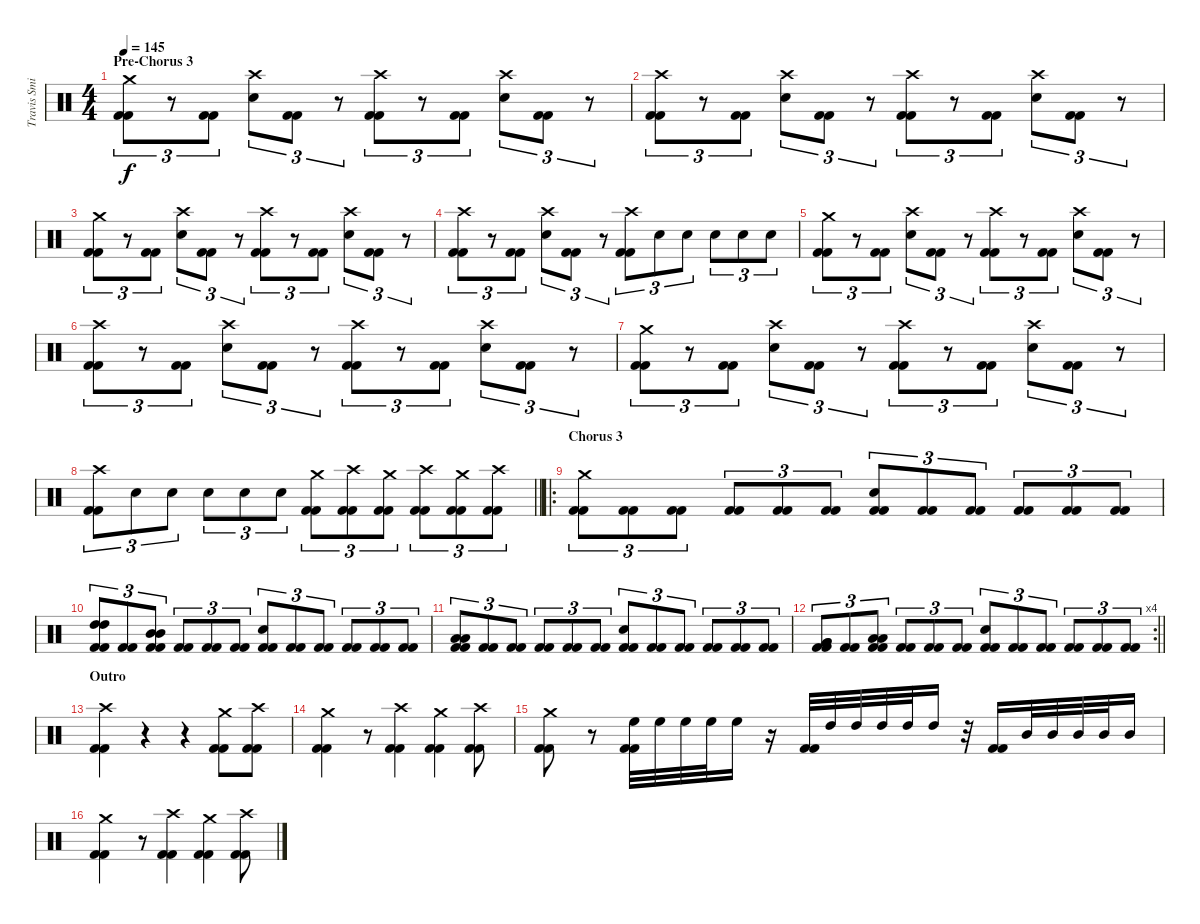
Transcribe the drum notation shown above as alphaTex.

\track ("Travis Smith" "Travis Smi") {instrument percussion}
\staff {score}
\articulation defaults
\ts (4 4)
\section ("" "Pre-Chorus 3")
\tempo 145
\clef neutral
\ks c
("Crash medium (hit)" "Kick (hit) 2" "Kick (hit) 2").8{tu (3 2) dy f} r.8{tu (3 2)} ("Kick (hit) 2" "Kick (hit) 2").8{tu (3 2)} ("Crash high (hit)" "Electric Snare (hit)").8{tu (3 2)} ("Kick (hit) 2" "Kick (hit) 2").8{tu (3 2)} r.8{tu (3 2)} ("Crash high (hit)" "Kick (hit) 2" "Kick (hit) 2").8{tu (3 2)} r.8{tu (3 2)} ("Kick (hit) 2" "Kick (hit) 2").8{tu (3 2)} ("Crash high (hit)" "Electric Snare (hit)").8{tu (3 2)} ("Kick (hit) 2" "Kick (hit) 2").8{tu (3 2)} r.8{tu (3 2)} |
("Crash high (hit)" "Kick (hit) 2" "Kick (hit) 2").8{tu (3 2)} r.8{tu (3 2)} ("Kick (hit) 2" "Kick (hit) 2").8{tu (3 2)} ("Crash high (hit)" "Electric Snare (hit)").8{tu (3 2)} ("Kick (hit) 2" "Kick (hit) 2").8{tu (3 2)} r.8{tu (3 2)} ("Crash high (hit)" "Kick (hit) 2" "Kick (hit) 2").8{tu (3 2)} r.8{tu (3 2)} ("Kick (hit) 2" "Kick (hit) 2").8{tu (3 2)} ("Crash high (hit)" "Electric Snare (hit)").8{tu (3 2)} ("Kick (hit) 2" "Kick (hit) 2").8{tu (3 2)} r.8{tu (3 2)} |
("Crash medium (hit)" "Kick (hit) 2" "Kick (hit) 2").8{tu (3 2)} r.8{tu (3 2)} ("Kick (hit) 2" "Kick (hit) 2").8{tu (3 2)} ("Crash high (hit)" "Electric Snare (hit)").8{tu (3 2)} ("Kick (hit) 2" "Kick (hit) 2").8{tu (3 2)} r.8{tu (3 2)} ("Crash high (hit)" "Kick (hit) 2" "Kick (hit) 2").8{tu (3 2)} r.8{tu (3 2)} ("Kick (hit) 2" "Kick (hit) 2").8{tu (3 2)} ("Crash high (hit)" "Electric Snare (hit)").8{tu (3 2)} ("Kick (hit) 2" "Kick (hit) 2").8{tu (3 2)} r.8{tu (3 2)} |
("Crash high (hit)" "Kick (hit) 2" "Kick (hit) 2").8{tu (3 2)} r.8{tu (3 2)} ("Kick (hit) 2" "Kick (hit) 2").8{tu (3 2)} ("Crash high (hit)" "Electric Snare (hit)").8{tu (3 2)} ("Kick (hit) 2" "Kick (hit) 2").8{tu (3 2)} r.8{tu (3 2)} ("Crash high (hit)" "Kick (hit) 2" "Kick (hit) 2").8{tu (3 2)} "Electric Snare (hit)".8{tu (3 2)} "Electric Snare (hit)".8{tu (3 2)} "Electric Snare (hit)".8{tu (3 2)} "Electric Snare (hit)".8{tu (3 2)} "Electric Snare (hit)".8{tu (3 2)} |
("Crash medium (hit)" "Kick (hit) 2" "Kick (hit) 2").8{tu (3 2)} r.8{tu (3 2)} ("Kick (hit) 2" "Kick (hit) 2").8{tu (3 2)} ("Crash high (hit)" "Electric Snare (hit)").8{tu (3 2)} ("Kick (hit) 2" "Kick (hit) 2").8{tu (3 2)} r.8{tu (3 2)} ("Crash high (hit)" "Kick (hit) 2" "Kick (hit) 2").8{tu (3 2)} r.8{tu (3 2)} ("Kick (hit) 2" "Kick (hit) 2").8{tu (3 2)} ("Crash high (hit)" "Electric Snare (hit)").8{tu (3 2)} ("Kick (hit) 2" "Kick (hit) 2").8{tu (3 2)} r.8{tu (3 2)} |
("Crash high (hit)" "Kick (hit) 2" "Kick (hit) 2").8{tu (3 2)} r.8{tu (3 2)} ("Kick (hit) 2" "Kick (hit) 2").8{tu (3 2)} ("Crash high (hit)" "Electric Snare (hit)").8{tu (3 2)} ("Kick (hit) 2" "Kick (hit) 2").8{tu (3 2)} r.8{tu (3 2)} ("Crash high (hit)" "Kick (hit) 2" "Kick (hit) 2").8{tu (3 2)} r.8{tu (3 2)} ("Kick (hit) 2" "Kick (hit) 2").8{tu (3 2)} ("Crash high (hit)" "Electric Snare (hit)").8{tu (3 2)} ("Kick (hit) 2" "Kick (hit) 2").8{tu (3 2)} r.8{tu (3 2)} |
("Crash medium (hit)" "Kick (hit) 2" "Kick (hit) 2").8{tu (3 2)} r.8{tu (3 2)} ("Kick (hit) 2" "Kick (hit) 2").8{tu (3 2)} ("Crash high (hit)" "Electric Snare (hit)").8{tu (3 2)} ("Kick (hit) 2" "Kick (hit) 2").8{tu (3 2)} r.8{tu (3 2)} ("Crash high (hit)" "Kick (hit) 2" "Kick (hit) 2").8{tu (3 2)} r.8{tu (3 2)} ("Kick (hit) 2" "Kick (hit) 2").8{tu (3 2)} ("Crash high (hit)" "Electric Snare (hit)").8{tu (3 2)} ("Kick (hit) 2" "Kick (hit) 2").8{tu (3 2)} r.8{tu (3 2)} |
\barLineRight lightlight
("Crash high (hit)" "Kick (hit) 2" "Kick (hit) 2").8{tu (3 2)} "Electric Snare (hit)".8{tu (3 2)} "Electric Snare (hit)".8{tu (3 2)} "Electric Snare (hit)".8{tu (3 2)} "Electric Snare (hit)".8{tu (3 2)} "Electric Snare (hit)".8{tu (3 2)} ("Crash medium (hit)" "Kick (hit) 2" "Kick (hit) 2").8{tu (3 2)} ("Crash high (hit)" "Kick (hit) 2" "Kick (hit) 2").8{tu (3 2)} ("Crash medium (hit)" "Kick (hit) 2" "Kick (hit) 2").8{tu (3 2)} ("Crash high (hit)" "Kick (hit) 2" "Kick (hit) 2").8{tu (3 2)} ("Crash medium (hit)" "Kick (hit) 2" "Kick (hit) 2").8{tu (3 2)} ("Crash high (hit)" "Kick (hit) 2" "Kick (hit) 2").8{tu (3 2)} |
\ro
\section ("" "Chorus 3")
("Crash medium (hit)" "Kick (hit) 2" "Kick (hit) 2").8{tu (3 2)} ("Kick (hit) 2" "Kick (hit) 2").8{tu (3 2)} ("Kick (hit) 2" "Kick (hit) 2").8{tu (3 2)} ("Kick (hit) 2" "Kick (hit) 2").8{tu (3 2)} ("Kick (hit) 2" "Kick (hit) 2").8{tu (3 2)} ("Kick (hit) 2" "Kick (hit) 2").8{tu (3 2)} ("Electric Snare (hit)" "Kick (hit) 2" "Kick (hit) 2").8{tu (3 2)} ("Kick (hit) 2" "Kick (hit) 2").8{tu (3 2)} ("Kick (hit) 2" "Kick (hit) 2").8{tu (3 2)} ("Kick (hit) 2" "Kick (hit) 2").8{tu (3 2)} ("Kick (hit) 2" "Kick (hit) 2").8{tu (3 2)} ("Kick (hit) 2" "Kick (hit) 2").8{tu (3 2)} |
("High Tom (hit)" "High Tom (hit)" "Kick (hit) 2" "Kick (hit) 2").8{tu (3 2)} ("Kick (hit) 2" "Kick (hit) 2").8{tu (3 2)} ("Mid Tom (hit)" "Mid Tom (hit)" "Kick (hit) 2" "Kick (hit) 2").8{tu (3 2)} ("Kick (hit) 2" "Kick (hit) 2").8{tu (3 2)} ("Kick (hit) 2" "Kick (hit) 2").8{tu (3 2)} ("Kick (hit) 2" "Kick (hit) 2").8{tu (3 2)} ("Electric Snare (hit)" "Kick (hit) 2" "Kick (hit) 2").8{tu (3 2)} ("Kick (hit) 2" "Kick (hit) 2").8{tu (3 2)} ("Kick (hit) 2" "Kick (hit) 2").8{tu (3 2)} ("Kick (hit) 2" "Kick (hit) 2").8{tu (3 2)} ("Kick (hit) 2" "Kick (hit) 2").8{tu (3 2)} ("Kick (hit) 2" "Kick (hit) 2").8{tu (3 2)} |
("Low Tom (hit)" "Low Tom (hit)" "Kick (hit) 2" "Kick (hit) 2").8{tu (3 2)} ("Kick (hit) 2" "Kick (hit) 2").8{tu (3 2)} ("Kick (hit) 2" "Kick (hit) 2").8{tu (3 2)} ("Kick (hit) 2" "Kick (hit) 2").8{tu (3 2)} ("Kick (hit) 2" "Kick (hit) 2").8{tu (3 2)} ("Kick (hit) 2" "Kick (hit) 2").8{tu (3 2)} ("Electric Snare (hit)" "Kick (hit) 2" "Kick (hit) 2").8{tu (3 2)} ("Kick (hit) 2" "Kick (hit) 2").8{tu (3 2)} ("Kick (hit) 2" "Kick (hit) 2").8{tu (3 2)} ("Kick (hit) 2" "Kick (hit) 2").8{tu (3 2)} ("Kick (hit) 2" "Kick (hit) 2").8{tu (3 2)} ("Kick (hit) 2" "Kick (hit) 2").8{tu (3 2)} |
\rc 4
\barLineRight lightlight
("Very Low Tom (hit)" "Very Low Tom (hit)" "Kick (hit) 2" "Kick (hit) 2").8{tu (3 2)} ("Kick (hit) 2" "Kick (hit) 2").8{tu (3 2)} ("Low Floor Tom (hit)" "Low Floor Tom (hit)" "Kick (hit) 2" "Kick (hit) 2").8{tu (3 2)} ("Kick (hit) 2" "Kick (hit) 2").8{tu (3 2)} ("Kick (hit) 2" "Kick (hit) 2").8{tu (3 2)} ("Kick (hit) 2" "Kick (hit) 2").8{tu (3 2)} ("Electric Snare (hit)" "Kick (hit) 2" "Kick (hit) 2").8{tu (3 2)} ("Kick (hit) 2" "Kick (hit) 2").8{tu (3 2)} ("Kick (hit) 2" "Kick (hit) 2").8{tu (3 2)} ("Kick (hit) 2" "Kick (hit) 2").8{tu (3 2)} ("Kick (hit) 2" "Kick (hit) 2").8{tu (3 2)} ("Kick (hit) 2" "Kick (hit) 2").8{tu (3 2)} |
\section ("" "Outro")
("Crash high (hit)" "Kick (hit) 2" "Kick (hit) 2").4 r.4 r.4 ("Crash medium (hit)" "Kick (hit) 2" "Kick (hit) 2").8 ("Crash high (hit)" "Kick (hit) 2" "Kick (hit) 2").8 |
("Crash medium (hit)" "Kick (hit) 2" "Kick (hit) 2").4 r.8 ("Crash high (hit)" "Kick (hit) 2" "Kick (hit) 2").4 ("Crash medium (hit)" "Kick (hit) 2" "Kick (hit) 2").4 ("Crash high (hit)" "Kick (hit) 2" "Kick (hit) 2").8 |
("Crash medium (hit)" "Kick (hit) 2" "Kick (hit) 2").8 r.8 ("High Floor Tom (hit)" "Kick (hit) 2" "Kick (hit) 2").32 "High Floor Tom (hit)".32 "High Floor Tom (hit)".32 "High Floor Tom (hit)".32 "High Floor Tom (hit)".16 r.16 ("Kick (hit) 2" "Kick (hit) 2").32 "High Tom (hit)".32 "High Tom (hit)".32 "High Tom (hit)".32 "High Tom (hit)".32 "High Tom (hit)".16 r.32 ("Kick (hit) 2" "Kick (hit) 2").16 "Mid Tom (hit)".32 "Mid Tom (hit)".32 "Mid Tom (hit)".32 "Mid Tom (hit)".32 "Mid Tom (hit)".16 |
("Crash medium (hit)" "Kick (hit) 2" "Kick (hit) 2").4 r.8 ("Crash high (hit)" "Kick (hit) 2" "Kick (hit) 2").4 ("Crash medium (hit)" "Kick (hit) 2" "Kick (hit) 2").4 ("Crash high (hit)" "Kick (hit) 2" "Kick (hit) 2").8
